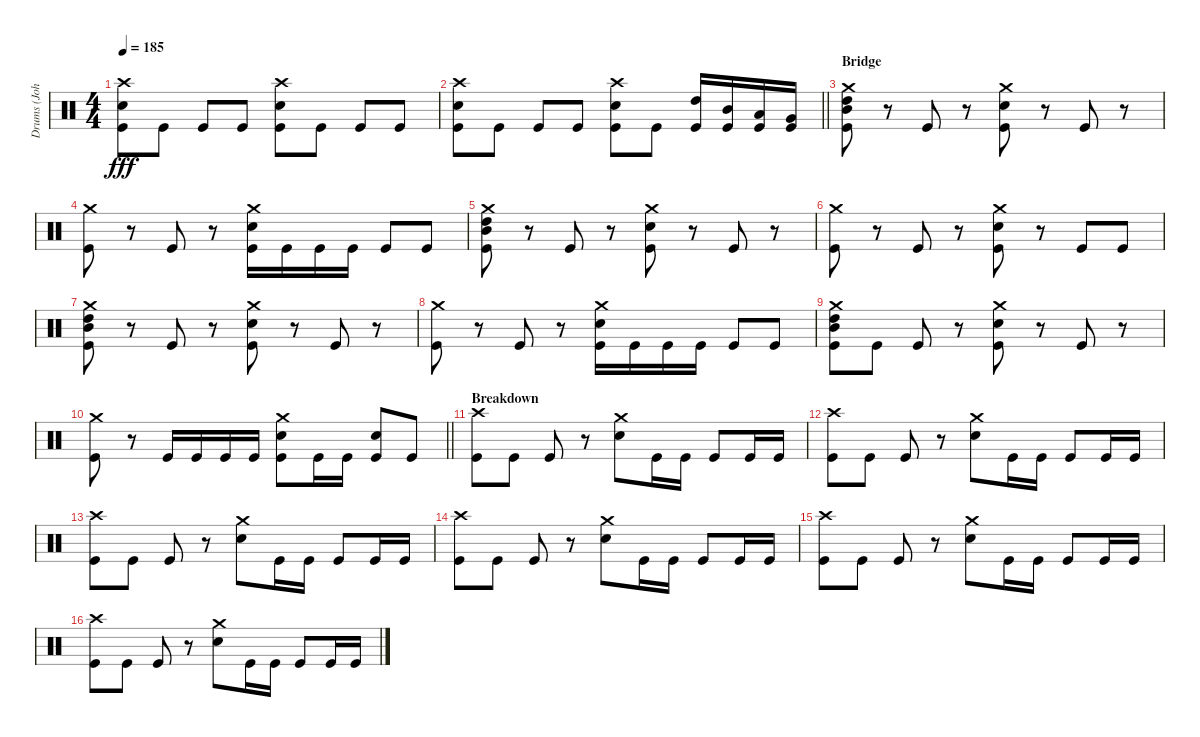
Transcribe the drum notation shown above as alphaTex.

\track ("Drums (John Bengtsson)" "Drums (Joh") {instrument percussion}
\staff {score}
\articulation defaults
\ts (4 4)
\tempo 185
\clef neutral
\ks c
("Crash high (hit)" "Electric Snare (hit)" "Kick (hit)").8{dy fff} "Kick (hit)".8 "Kick (hit)".8 "Kick (hit)".8 ("Crash high (hit)" "Electric Snare (hit)" "Kick (hit)").8 "Kick (hit)".8 "Kick (hit)".8 "Kick (hit)".8 |
\barLineRight lightlight
("Crash high (hit)" "Electric Snare (hit)" "Kick (hit)").8 "Kick (hit)".8 "Kick (hit)".8 "Kick (hit)".8 ("Crash high (hit)" "Electric Snare (hit)" "Kick (hit)").8 "Kick (hit)".8 ("High Tom (hit)" "Kick (hit)").16 ("Mid Tom (hit)" "Kick (hit)").16 ("Low Tom (hit)" "Kick (hit)").16 ("Very Low Tom (hit)" "Kick (hit)").16 |
\section ("" "Bridge")
("Crash medium (hit)" "High Tom (hit)" "Mid Tom (hit)" "Kick (hit)").8 r.8 "Kick (hit)".8 r.8 ("Crash medium (hit)" "Electric Snare (hit)" "Kick (hit)").8 r.8 "Kick (hit)".8 r.8 |
("Crash medium (hit)" "Kick (hit)").8 r.8 "Kick (hit)".8 r.8 ("Crash medium (hit)" "Electric Snare (hit)" "Kick (hit)").16 "Kick (hit)".16 "Kick (hit)".16 "Kick (hit)".16 "Kick (hit)".8 "Kick (hit)".8 |
("Crash medium (hit)" "High Tom (hit)" "Mid Tom (hit)" "Kick (hit)").8 r.8 "Kick (hit)".8 r.8 ("Crash medium (hit)" "Electric Snare (hit)" "Kick (hit)").8 r.8 "Kick (hit)".8 r.8 |
("Crash medium (hit)" "Kick (hit)").8 r.8 "Kick (hit)".8 r.8 ("Crash medium (hit)" "Electric Snare (hit)" "Kick (hit)").8 r.8 "Kick (hit)".8 "Kick (hit)".8 |
("Crash medium (hit)" "High Tom (hit)" "Mid Tom (hit)" "Kick (hit)").8 r.8 "Kick (hit)".8 r.8 ("Crash medium (hit)" "Electric Snare (hit)" "Kick (hit)").8 r.8 "Kick (hit)".8 r.8 |
("Crash medium (hit)" "Kick (hit)").8 r.8 "Kick (hit)".8 r.8 ("Crash medium (hit)" "Electric Snare (hit)" "Kick (hit)").16 "Kick (hit)".16 "Kick (hit)".16 "Kick (hit)".16 "Kick (hit)".8 "Kick (hit)".8 |
("Crash medium (hit)" "High Tom (hit)" "Mid Tom (hit)" "Kick (hit)").8 "Kick (hit)".8 "Kick (hit)".8 r.8 ("Crash medium (hit)" "Electric Snare (hit)" "Kick (hit)").8 r.8 "Kick (hit)".8 r.8 |
\barLineRight lightlight
("Crash medium (hit)" "Kick (hit)").8 r.8 "Kick (hit)".16 "Kick (hit)".16 "Kick (hit)".16 "Kick (hit)".16 ("Crash medium (hit)" "Electric Snare (hit)" "Kick (hit)").8 "Kick (hit)".16 "Kick (hit)".16 ("Electric Snare (hit)" "Kick (hit)").8 "Kick (hit)".8 |
\section ("" "Breakdown")
("Crash high (hit)" "Kick (hit)").8 "Kick (hit)".8 "Kick (hit)".8 r.8 ("Crash medium (hit)" "Electric Snare (hit)").8 "Kick (hit)".16 "Kick (hit)".16 "Kick (hit)".8 "Kick (hit)".16 "Kick (hit)".16 |
("Crash high (hit)" "Kick (hit)").8 "Kick (hit)".8 "Kick (hit)".8 r.8 ("Crash medium (hit)" "Electric Snare (hit)").8 "Kick (hit)".16 "Kick (hit)".16 "Kick (hit)".8 "Kick (hit)".16 "Kick (hit)".16 |
("Crash high (hit)" "Kick (hit)").8 "Kick (hit)".8 "Kick (hit)".8 r.8 ("Crash medium (hit)" "Electric Snare (hit)").8 "Kick (hit)".16 "Kick (hit)".16 "Kick (hit)".8 "Kick (hit)".16 "Kick (hit)".16 |
("Crash high (hit)" "Kick (hit)").8 "Kick (hit)".8 "Kick (hit)".8 r.8 ("Crash medium (hit)" "Electric Snare (hit)").8 "Kick (hit)".16 "Kick (hit)".16 "Kick (hit)".8 "Kick (hit)".16 "Kick (hit)".16 |
("Crash high (hit)" "Kick (hit)").8 "Kick (hit)".8 "Kick (hit)".8 r.8 ("Crash medium (hit)" "Electric Snare (hit)").8 "Kick (hit)".16 "Kick (hit)".16 "Kick (hit)".8 "Kick (hit)".16 "Kick (hit)".16 |
("Crash high (hit)" "Kick (hit)").8 "Kick (hit)".8 "Kick (hit)".8 r.8 ("Crash medium (hit)" "Electric Snare (hit)").8 "Kick (hit)".16 "Kick (hit)".16 "Kick (hit)".8 "Kick (hit)".16 "Kick (hit)".16
